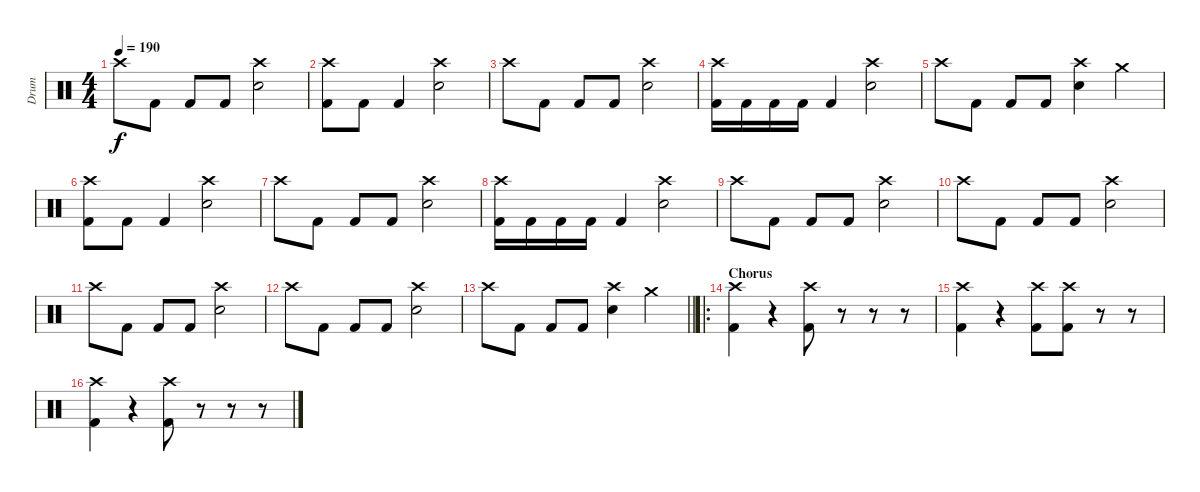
\track ("Drum" "Drum") {instrument percussion}
\staff {score}
\articulation defaults
\ts (4 4)
\tempo 190
\clef neutral
\ks c "Crash high (hit)".8{dy f} "Kick (hit) 2".8 "Kick (hit) 2".8 "Kick (hit) 2".8
("Crash high (hit)" "Electric Snare (hit)").2 |
("Crash high (hit)" "Kick (hit) 2").8 "Kick (hit) 2".8 "Kick (hit) 2".4 ("Crash high (hit)" "Electric Snare (hit)").2 |
"Crash high (hit)".8 "Kick (hit) 2".8 "Kick (hit) 2".8 "Kick (hit) 2".8 ("Crash high (hit)" "Electric Snare (hit)").2 |
("Crash high (hit)" "Kick (hit) 2").16 "Kick (hit) 2".16 "Kick (hit) 2".16 "Kick (hit) 2".16 "Kick (hit) 2".4 ("Crash high (hit)" "Electric Snare (hit)").2 |
"Crash high (hit)".8 "Kick (hit) 2".8 "Kick (hit) 2".8 "Kick (hit) 2".8 ("Crash high (hit)" "Electric Snare (hit)").4 "Crash medium (hit)".4 |
("Crash high (hit)" "Kick (hit) 2").8 "Kick (hit) 2".8 "Kick (hit) 2".4 ("Crash high (hit)" "Electric Snare (hit)").2 |
"Crash high (hit)".8 "Kick (hit) 2".8 "Kick (hit) 2".8 "Kick (hit) 2".8 ("Crash high (hit)" "Electric Snare (hit)").2 |
("Crash high (hit)" "Kick (hit) 2").16 "Kick (hit) 2".16 "Kick (hit) 2".16 "Kick (hit) 2".16 "Kick (hit) 2".4 ("Crash high (hit)" "Electric Snare (hit)").2 |
"Crash high (hit)".8 "Kick (hit) 2".8 "Kick (hit) 2".8 "Kick (hit) 2".8 ("Crash high (hit)" "Electric Snare (hit)").2 |
"Crash high (hit)".8 "Kick (hit) 2".8 "Kick (hit) 2".8 "Kick (hit) 2".8 ("Crash high (hit)" "Electric Snare (hit)").2 |
"Crash high (hit)".8 "Kick (hit) 2".8 "Kick (hit) 2".8 "Kick (hit) 2".8 ("Crash high (hit)" "Electric Snare (hit)").2 |
"Crash high (hit)".8 "Kick (hit) 2".8 "Kick (hit) 2".8 "Kick (hit) 2".8 ("Crash high (hit)" "Electric Snare (hit)").2 |
\barLineRight lightlight "Crash high (hit)".8 "Kick (hit) 2".8 "Kick (hit) 2".8 "Kick (hit) 2".8
("Crash high (hit)" "Electric Snare (hit)").4 "Crash medium (hit)".4 |
\ro
\section ("" "Chorus")
("Crash high (hit)" "Kick (hit) 2").4 r.4 ("Crash high (hit)" "Kick (hit) 2").8 r.8 r.8 r.8 |
("Crash high (hit)" "Kick (hit) 2").4 r.4 ("Crash high (hit)" "Kick (hit) 2").8 ("Crash high (hit)" "Kick (hit) 2").8 r.8 r.8 |
("Crash high (hit)" "Kick (hit) 2").4 r.4 ("Crash high (hit)" "Kick (hit) 2").8 r.8 r.8 r.8
